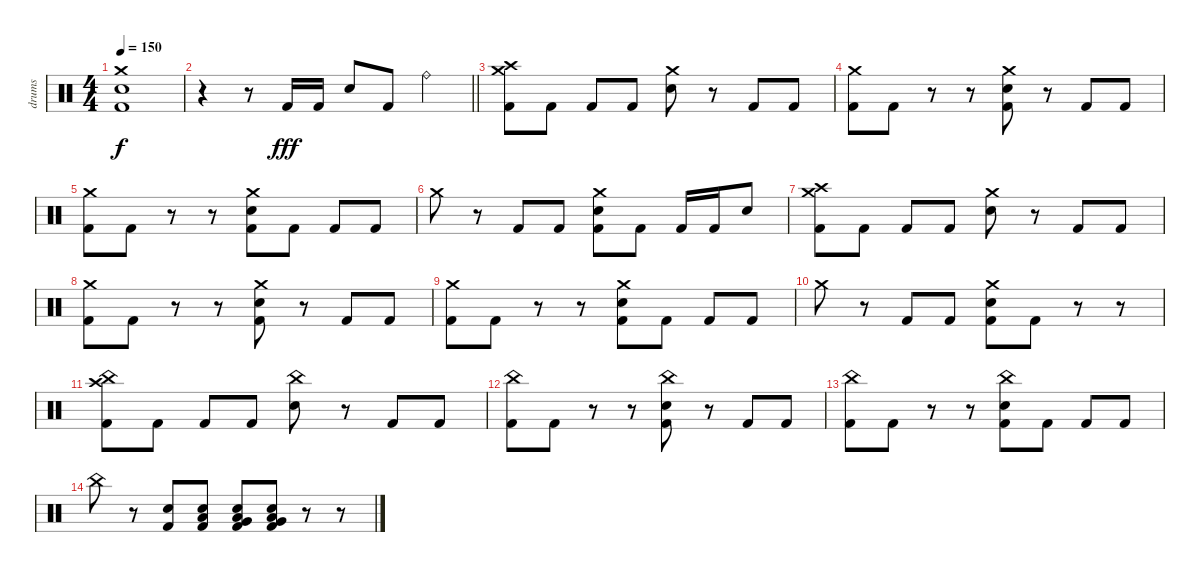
\track ("drums" "drums") {instrument percussion}
\staff {score}
\articulation defaults
\ts (4 4)
\section ("" "")
\tempo 150
\clef neutral
\ks c
("Crash medium (hit)" "Electric Snare (hit)" "Kick (hit) 2").1{dy f} |
\barLineRight lightlight
r.4 r.8 "Kick (hit) 2".16{dy fff} "Kick (hit) 2".16 "Electric Snare (hit)".8 "Kick (hit) 2".8 "Ride (bell)".4 |
\section ("" "")
("Crash high (hit)" "Crash medium (hit)" "Kick (hit) 2").8 "Kick (hit) 2".8 "Kick (hit) 2".8 "Kick (hit) 2".8 ("Crash medium (hit)" "Electric Snare (hit)").8 r.8 "Kick (hit) 2".8 "Kick (hit) 2".8 |
("Crash medium (hit)" "Kick (hit) 2").8 "Kick (hit) 2".8 r.8 r.8 ("Crash medium (hit)" "Electric Snare (hit)" "Kick (hit) 2").8 r.8 "Kick (hit) 2".8 "Kick (hit) 2".8 |
("Crash medium (hit)" "Kick (hit) 2").8 "Kick (hit) 2".8 r.8 r.8 ("Crash medium (hit)" "Electric Snare (hit)" "Kick (hit) 2").8 "Kick (hit) 2".8 "Kick (hit) 2".8 "Kick (hit) 2".8 |
"Crash medium (hit)".8 r.8 "Kick (hit) 2".8 "Kick (hit) 2".8 ("Crash medium (hit)" "Electric Snare (hit)" "Kick (hit) 2").8 "Kick (hit) 2".8 "Kick (hit) 2".16 "Kick (hit) 2".16 "Electric Snare (hit)".8 |
("Crash high (hit)" "Crash medium (hit)" "Kick (hit) 2").8 "Kick (hit) 2".8 "Kick (hit) 2".8 "Kick (hit) 2".8 ("Crash medium (hit)" "Electric Snare (hit)").8 r.8 "Kick (hit) 2".8 "Kick (hit) 2".8 |
("Crash medium (hit)" "Kick (hit) 2").8 "Kick (hit) 2".8 r.8 r.8 ("Crash medium (hit)" "Electric Snare (hit)" "Kick (hit) 2").8 r.8 "Kick (hit) 2".8 "Kick (hit) 2".8 |
("Crash medium (hit)" "Kick (hit) 2").8 "Kick (hit) 2".8 r.8 r.8 ("Crash medium (hit)" "Electric Snare (hit)" "Kick (hit) 2").8 "Kick (hit) 2".8 "Kick (hit) 2".8 "Kick (hit) 2".8 |
"Crash medium (hit)".8 r.8 "Kick (hit) 2".8 "Kick (hit) 2".8 ("Crash medium (hit)" "Electric Snare (hit)" "Kick (hit) 2").8 "Kick (hit) 2".8 r.8 r.8 |
("Crash high (hit)" "China (hit)" "Kick (hit) 2").8 "Kick (hit) 2".8 "Kick (hit) 2".8 "Kick (hit) 2".8 ("China (hit)" "Electric Snare (hit)").8 r.8 "Kick (hit) 2".8 "Kick (hit) 2".8 |
("China (hit)" "Kick (hit) 2").8 "Kick (hit) 2".8 r.8 r.8 ("China (hit)" "Electric Snare (hit)" "Kick (hit) 2").8 r.8 "Kick (hit) 2".8 "Kick (hit) 2".8 |
("China (hit)" "Kick (hit) 2").8 "Kick (hit) 2".8 r.8 r.8 ("China (hit)" "Electric Snare (hit)" "Kick (hit) 2").8 "Kick (hit) 2".8 "Kick (hit) 2".8 "Kick (hit) 2".8 |
"China (hit)".8 r.8 ("Electric Snare (hit)" "Kick (hit) 2").8 ("Electric Snare (hit)" "Low Floor Tom (hit)" "Kick (hit) 2").8 ("Electric Snare (hit)" "Very Low Tom (hit)" "Low Floor Tom (hit)" "Kick (hit) 2").8 ("Electric Snare (hit)" "Very Low Tom (hit)" "Low Floor Tom (hit)" "Kick (hit) 2").8 r.8 r.8
